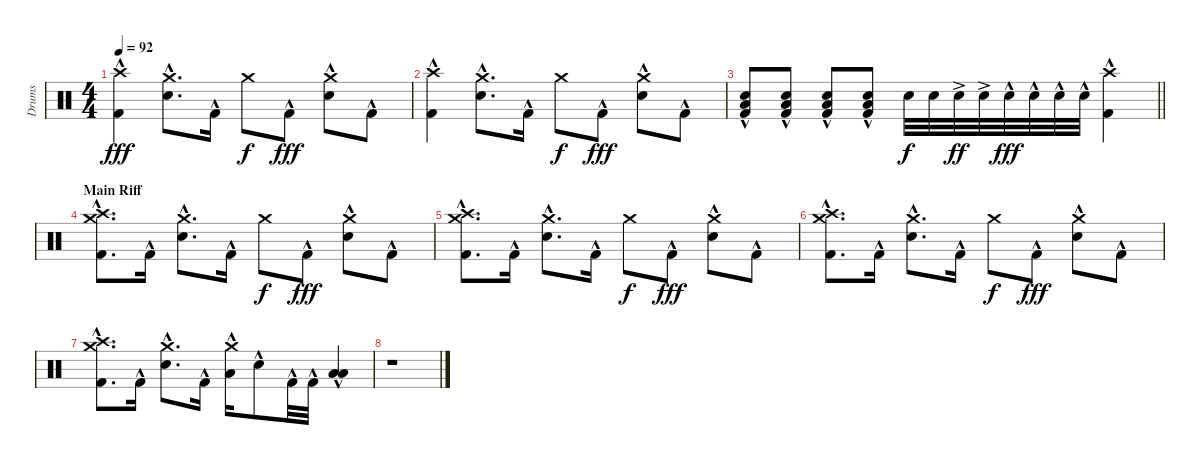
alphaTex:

\track ("Drums" "Drums") {instrument percussion}
\staff {score}
\articulation defaults
\ts (4 4)
\tempo 92
\clef neutral
\ks c
("Crash high (hit)" "Kick (hit) 2"{hac}).4{dy fff} ("Crash medium (hit)" "Electric Snare (hit)"{hac}).8{d} "Kick (hit) 2"{hac}.16 "Crash medium (hit)".8{dy f} "Kick (hit) 2"{hac}.8{dy fff} ("Crash medium (hit)" "Electric Snare (hit)"{hac}).8 "Kick (hit) 2"{hac}.8 |
("Crash high (hit)" "Kick (hit) 2"{hac}).4 ("Crash medium (hit)" "Electric Snare (hit)"{hac}).8{d} "Kick (hit) 2"{hac}.16 "Crash medium (hit)".8{dy f} "Kick (hit) 2"{hac}.8{dy fff} ("Crash medium (hit)" "Electric Snare (hit)"{hac}).8 "Kick (hit) 2"{hac}.8 |
\barLineRight lightlight
("Electric Snare (hit)" "Low Floor Tom (hit)"{hac} "Kick (hit) 2"{hac}).8 ("Electric Snare (hit)" "Low Floor Tom (hit)"{hac} "Kick (hit) 2"{hac}).8 ("Electric Snare (hit)" "Low Floor Tom (hit)"{hac} "Kick (hit) 2"{hac}).8 ("Electric Snare (hit)" "Low Floor Tom (hit)"{hac} "Kick (hit) 2"{hac}).8 "Electric Snare (hit)".32{dy f} "Electric Snare (hit)".32 "Electric Snare (hit)"{ac}.32{dy ff} "Electric Snare (hit)"{ac}.32 "Electric Snare (hit)"{hac}.32{dy fff} "Electric Snare (hit)"{hac}.32 "Electric Snare (hit)"{hac}.32 "Electric Snare (hit)"{hac}.32 ("Crash high (hit)" "Kick (hit) 2"{hac}).4 |
\section ("" "Main Riff")
("Crash medium (hit)" "Crash high (hit)" "Kick (hit) 2"{hac}).8{d} "Kick (hit) 2"{hac}.16 ("Crash medium (hit)" "Electric Snare (hit)"{hac}).8{d} "Kick (hit) 2"{hac}.16 "Crash medium (hit)".8{dy f} "Kick (hit) 2"{hac}.8{dy fff} ("Crash medium (hit)" "Electric Snare (hit)"{hac}).8 "Kick (hit) 2"{hac}.8 |
("Crash medium (hit)" "Crash high (hit)" "Kick (hit) 2"{hac}).8{d} "Kick (hit) 2"{hac}.16 ("Crash medium (hit)" "Electric Snare (hit)"{hac}).8{d} "Kick (hit) 2"{hac}.16 "Crash medium (hit)".8{dy f} "Kick (hit) 2"{hac}.8{dy fff} ("Crash medium (hit)" "Electric Snare (hit)"{hac}).8 "Kick (hit) 2"{hac}.8 |
("Crash medium (hit)" "Crash high (hit)" "Kick (hit) 2"{hac}).8{d} "Kick (hit) 2"{hac}.16 ("Crash medium (hit)" "Electric Snare (hit)"{hac}).8{d} "Kick (hit) 2"{hac}.16 "Crash medium (hit)".8{dy f} "Kick (hit) 2"{hac}.8{dy fff} ("Crash medium (hit)" "Electric Snare (hit)"{hac}).8 "Kick (hit) 2"{hac}.8 |
("Crash medium (hit)" "Crash high (hit)" "Kick (hit) 2"{hac}).8{d} "Kick (hit) 2"{hac}.16 ("Crash medium (hit)" "Electric Snare (hit)"{hac}).8{d} "Kick (hit) 2"{hac}.16 ("Crash medium (hit)" "Low Floor Tom (hit)"{hac}).16 "Electric Snare (hit)"{hac}.8 "Kick (hit) 2"{hac}.32 "Kick (hit) 2"{hac}.32 ("Low Floor Tom (hit)"{hac} "Low Floor Tom (hit)"{hac}).4 |
r.1
